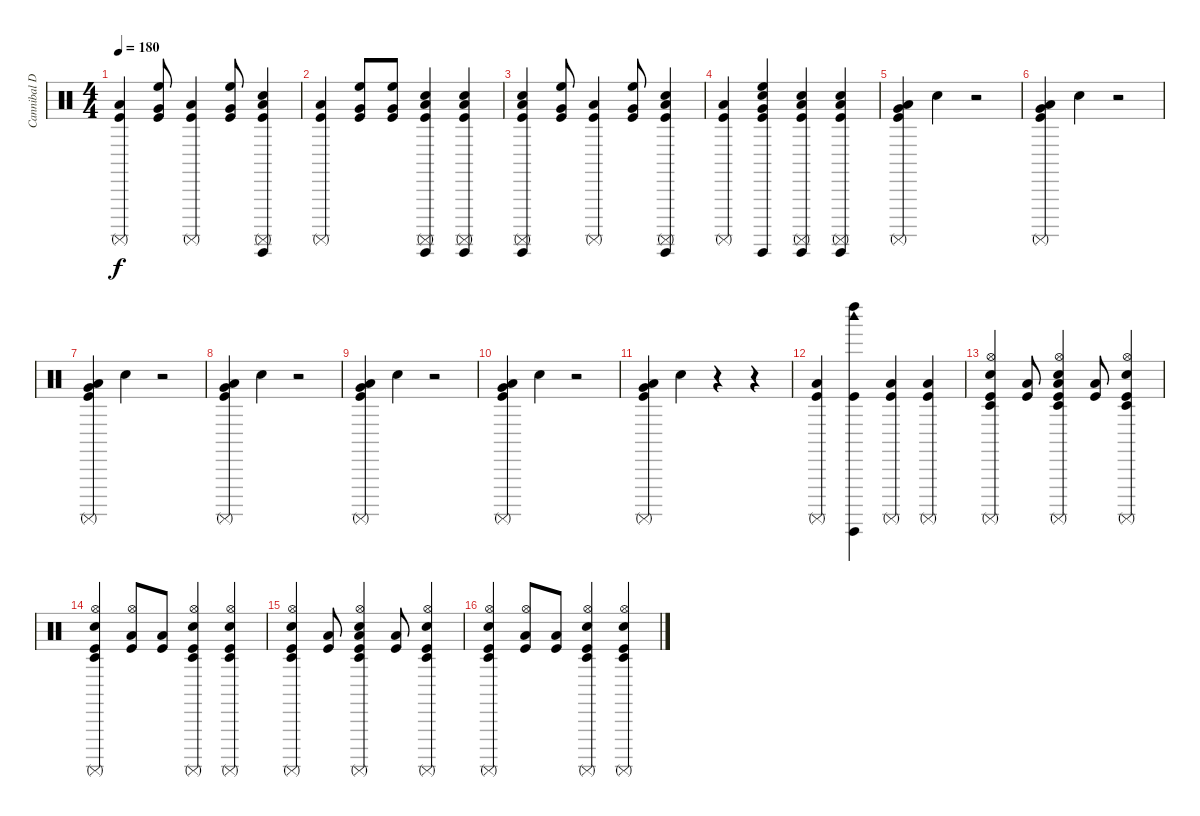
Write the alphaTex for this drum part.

\track ("Cannibal Drums :)" "Cannibal D") {instrument percussion}
\staff {score}
\articulation defaults
\ts (4 4)
\tempo 180
\clef neutral
\ks c
("Kick (hit)" "Low Tom (hit)" "Surdo (mute)").4{dy f} ("Kick (hit)" "High Floor Tom (hit)" "Very Low Tom (hit)").8 ("Kick (hit)" "Low Tom (hit)" "Surdo (mute)").4 ("Kick (hit)" "High Floor Tom (hit)" "Very Low Tom (hit)").8 ("Kick (hit)" "Hand Clap (hit)" "Guiro (hit)" "Low Tom (hit)" "Surdo (mute)").4 |
("Kick (hit)" "Low Tom (hit)" "Surdo (mute)").4 ("Kick (hit)" "High Floor Tom (hit)" "Very Low Tom (hit)").8 ("Kick (hit)" "High Floor Tom (hit)" "Very Low Tom (hit)").8 ("Kick (hit)" "Hand Clap (hit)" "Guiro (hit)" "Low Tom (hit)" "Surdo (mute)").4 ("Kick (hit)" "Hand Clap (hit)" "Guiro (hit)" "Low Tom (hit)" "Surdo (mute)").4 |
("Kick (hit)" "Hand Clap (hit)" "Guiro (hit)" "Low Tom (hit)" "Surdo (mute)").4 ("Kick (hit)" "High Floor Tom (hit)" "Very Low Tom (hit)").8 ("Kick (hit)" "Low Tom (hit)" "Surdo (mute)").4 ("Kick (hit)" "High Floor Tom (hit)" "Very Low Tom (hit)").8 ("Kick (hit)" "Hand Clap (hit)" "Guiro (hit)" "Low Tom (hit)" "Surdo (mute)").4 |
("Kick (hit)" "Low Tom (hit)" "Surdo (mute)").4 ("Kick (hit)" "Hand Clap (hit)" "Guiro (hit)" "High Floor Tom (hit)" "Very Low Tom (hit)").4 ("Kick (hit)" "Hand Clap (hit)" "Guiro (hit)" "Low Tom (hit)" "Surdo (mute)").4 ("Kick (hit)" "Hand Clap (hit)" "Guiro (hit)" "Low Tom (hit)" "Surdo (mute)").4 |
("Kick (hit)" "Low Tom (hit)" "Surdo (mute)" "Very Low Tom (hit)").4 "Hand Clap (hit)".4 r.2 |
("Kick (hit)" "Low Tom (hit)" "Surdo (mute)" "Very Low Tom (hit)").4 "Hand Clap (hit)".4 r.2 |
("Kick (hit)" "Low Tom (hit)" "Surdo (mute)" "Very Low Tom (hit)").4 "Hand Clap (hit)".4 r.2 |
("Kick (hit)" "Low Tom (hit)" "Surdo (mute)" "Very Low Tom (hit)").4 "Hand Clap (hit)".4 r.2 |
("Kick (hit)" "Low Tom (hit)" "Surdo (mute)" "Very Low Tom (hit)").4 "Hand Clap (hit)".4 r.2 |
("Kick (hit)" "Low Tom (hit)" "Surdo (mute)" "Very Low Tom (hit)").4 "Hand Clap (hit)".4 r.2 |
("Kick (hit)" "Low Tom (hit)" "Surdo (mute)" "Very Low Tom (hit)").4 "Hand Clap (hit)".4 r.4 r.4 |
("Kick (hit)" "Low Tom (hit)" "Surdo (mute)").4 ("Kick (hit)" "Woodblock high (hit)" "Guiro (hit)" "Left Maraca (hit)").4 ("Kick (hit)" "Low Tom (hit)" "Surdo (mute)").4 ("Kick (hit)" "Low Tom (hit)" "Surdo (mute)").4 |
("Kick (hit)" "Hi-Hat (open)" "Surdo (mute)" "Timbale low (hit)" "Snare (hit) 2").4 ("Kick (hit)" "Low Floor Tom (hit)").8 ("Kick (hit)" "Hi-Hat (open)" "Timbale low (hit)" "Low Tom (hit)" "Snare (hit) 2" "Surdo (mute)").4 ("Kick (hit)" "Low Floor Tom (hit)").8 ("Kick (hit)" "Hi-Hat (open)" "Timbale low (hit)" "Surdo (mute)" "Snare (hit) 2").4 |
("Kick (hit)" "Hi-Hat (open)" "Timbale low (hit)" "Surdo (mute)" "Snare (hit) 2").4 ("Kick (hit)" "Hi-Hat (open)" "Low Floor Tom (hit)").8 ("Kick (hit)" "Low Floor Tom (hit)").8 ("Kick (hit)" "Hi-Hat (open)" "Timbale low (hit)" "Surdo (mute)" "Snare (hit) 2").4 ("Kick (hit)" "Hi-Hat (open)" "Timbale low (hit)" "Surdo (mute)" "Snare (hit) 2").4 |
("Kick (hit)" "Hi-Hat (open)" "Surdo (mute)" "Timbale low (hit)" "Snare (hit) 2").4 ("Kick (hit)" "Low Floor Tom (hit)").8 ("Kick (hit)" "Hi-Hat (open)" "Timbale low (hit)" "Low Tom (hit)" "Snare (hit) 2" "Surdo (mute)").4 ("Kick (hit)" "Low Floor Tom (hit)").8 ("Kick (hit)" "Hi-Hat (open)" "Timbale low (hit)" "Surdo (mute)" "Snare (hit) 2").4 |
("Kick (hit)" "Hi-Hat (open)" "Timbale low (hit)" "Surdo (mute)" "Snare (hit) 2").4 ("Kick (hit)" "Hi-Hat (open)" "Low Floor Tom (hit)").8 ("Kick (hit)" "Low Floor Tom (hit)").8 ("Kick (hit)" "Hi-Hat (open)" "Timbale low (hit)" "Surdo (mute)" "Snare (hit) 2").4 ("Kick (hit)" "Hi-Hat (open)" "Timbale low (hit)" "Surdo (mute)" "Snare (hit) 2").4
